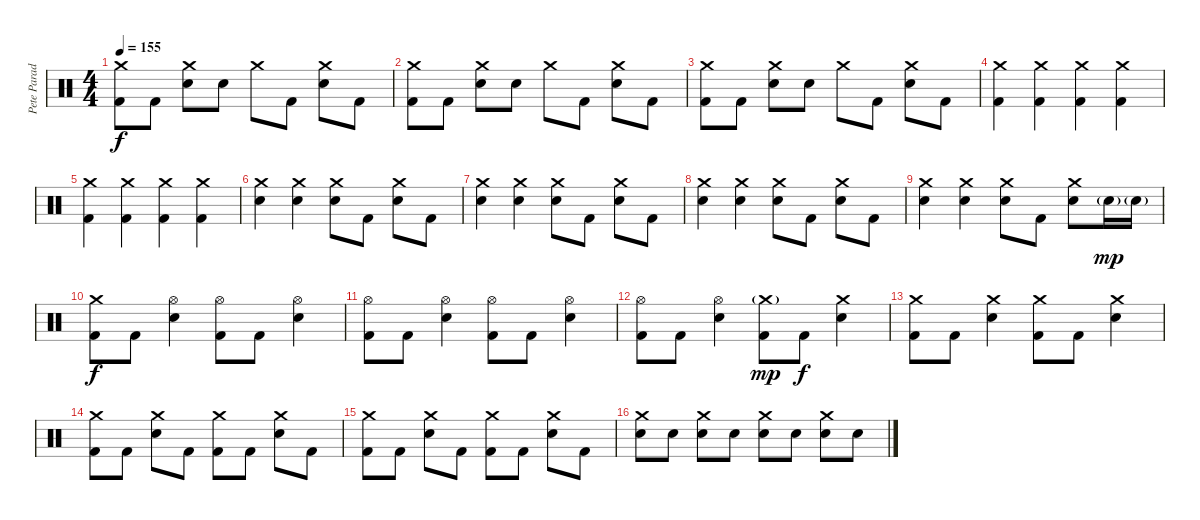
\track ("Pete Parada - Drums" "Pete Parad") {instrument percussion}
\staff {score}
\articulation defaults
\ts (4 4)
\tempo 155
\clef neutral
\ks c
("Crash medium (hit)" "Kick (hit) 2").8{dy f} "Kick (hit) 2".8 ("Crash medium (hit)" "Electric Snare (hit)").8 "Electric Snare (hit)".8 "Crash medium (hit)".8 "Kick (hit) 2".8 ("Crash medium (hit)" "Electric Snare (hit)").8 "Kick (hit) 2".8 |
("Crash medium (hit)" "Kick (hit) 2").8 "Kick (hit) 2".8 ("Crash medium (hit)" "Electric Snare (hit)").8 "Electric Snare (hit)".8 "Crash medium (hit)".8 "Kick (hit) 2".8 ("Crash medium (hit)" "Electric Snare (hit)").8 "Kick (hit) 2".8 |
("Crash medium (hit)" "Kick (hit) 2").8 "Kick (hit) 2".8 ("Crash medium (hit)" "Electric Snare (hit)").8 "Electric Snare (hit)".8 "Crash medium (hit)".8 "Kick (hit) 2".8 ("Crash medium (hit)" "Electric Snare (hit)").8 "Kick (hit) 2".8 |
("Crash medium (hit)" "Kick (hit) 2").4 ("Crash medium (hit)" "Kick (hit) 2").4 ("Crash medium (hit)" "Kick (hit) 2").4 ("Crash medium (hit)" "Kick (hit) 2").4 |
("Crash medium (hit)" "Kick (hit) 2").4 ("Crash medium (hit)" "Kick (hit) 2").4 ("Crash medium (hit)" "Kick (hit) 2").4 ("Crash medium (hit)" "Kick (hit) 2").4 |
("Crash medium (hit)" "Electric Snare (hit)").4 ("Crash medium (hit)" "Electric Snare (hit)").4 ("Crash medium (hit)" "Electric Snare (hit)").8 "Kick (hit) 2".8 ("Crash medium (hit)" "Electric Snare (hit)").8 "Kick (hit) 2".8 |
("Crash medium (hit)" "Electric Snare (hit)").4 ("Crash medium (hit)" "Electric Snare (hit)").4 ("Crash medium (hit)" "Electric Snare (hit)").8 "Kick (hit) 2".8 ("Crash medium (hit)" "Electric Snare (hit)").8 "Kick (hit) 2".8 |
("Crash medium (hit)" "Electric Snare (hit)").4 ("Crash medium (hit)" "Electric Snare (hit)").4 ("Crash medium (hit)" "Electric Snare (hit)").8 "Kick (hit) 2".8 ("Crash medium (hit)" "Electric Snare (hit)").8 "Kick (hit) 2".8 |
("Crash medium (hit)" "Electric Snare (hit)").4 ("Crash medium (hit)" "Electric Snare (hit)").4 ("Crash medium (hit)" "Electric Snare (hit)").8 "Kick (hit) 2".8 ("Crash medium (hit)" "Electric Snare (hit)").8 "Electric Snare (hit)"{g}.16{dy mp} "Electric Snare (hit)"{g}.16 |
("Crash medium (hit)" "Kick (hit) 2").8{dy f} "Kick (hit) 2".8 ("Hi-Hat (open)" "Electric Snare (hit)").4 ("Hi-Hat (open)" "Kick (hit) 2").8 "Kick (hit) 2".8 ("Hi-Hat (open)" "Electric Snare (hit)").4 |
("Hi-Hat (open)" "Kick (hit) 2").8 "Kick (hit) 2".8 ("Hi-Hat (open)" "Electric Snare (hit)").4 ("Hi-Hat (open)" "Kick (hit) 2").8 "Kick (hit) 2".8 ("Hi-Hat (open)" "Electric Snare (hit)").4 |
("Hi-Hat (open)" "Kick (hit) 2").8 "Kick (hit) 2".8 ("Hi-Hat (open)" "Electric Snare (hit)").4 ("Crash medium (hit)"{g} "Kick (hit) 2").8{dy mp} "Kick (hit) 2".8{dy f} ("Crash medium (hit)" "Electric Snare (hit)").4 |
("Crash medium (hit)" "Kick (hit) 2").8 "Kick (hit) 2".8 ("Crash medium (hit)" "Electric Snare (hit)").4 ("Crash medium (hit)" "Kick (hit) 2").8 "Kick (hit) 2".8 ("Crash medium (hit)" "Electric Snare (hit)").4 |
("Crash medium (hit)" "Kick (hit) 2").8 "Kick (hit) 2".8 ("Crash medium (hit)" "Electric Snare (hit)").8 "Kick (hit) 2".8 ("Crash medium (hit)" "Kick (hit) 2").8 "Kick (hit) 2".8 ("Crash medium (hit)" "Electric Snare (hit)").8 "Kick (hit) 2".8 |
("Crash medium (hit)" "Kick (hit) 2").8 "Kick (hit) 2".8 ("Crash medium (hit)" "Electric Snare (hit)").8 "Kick (hit) 2".8 ("Crash medium (hit)" "Kick (hit) 2").8 "Kick (hit) 2".8 ("Crash medium (hit)" "Electric Snare (hit)").8 "Kick (hit) 2".8 |
("Crash medium (hit)" "Electric Snare (hit)").8 "Electric Snare (hit)".8 ("Crash medium (hit)" "Electric Snare (hit)").8 "Electric Snare (hit)".8 ("Crash medium (hit)" "Electric Snare (hit)").8 "Electric Snare (hit)".8 ("Crash medium (hit)" "Electric Snare (hit)").8 "Electric Snare (hit)".8
